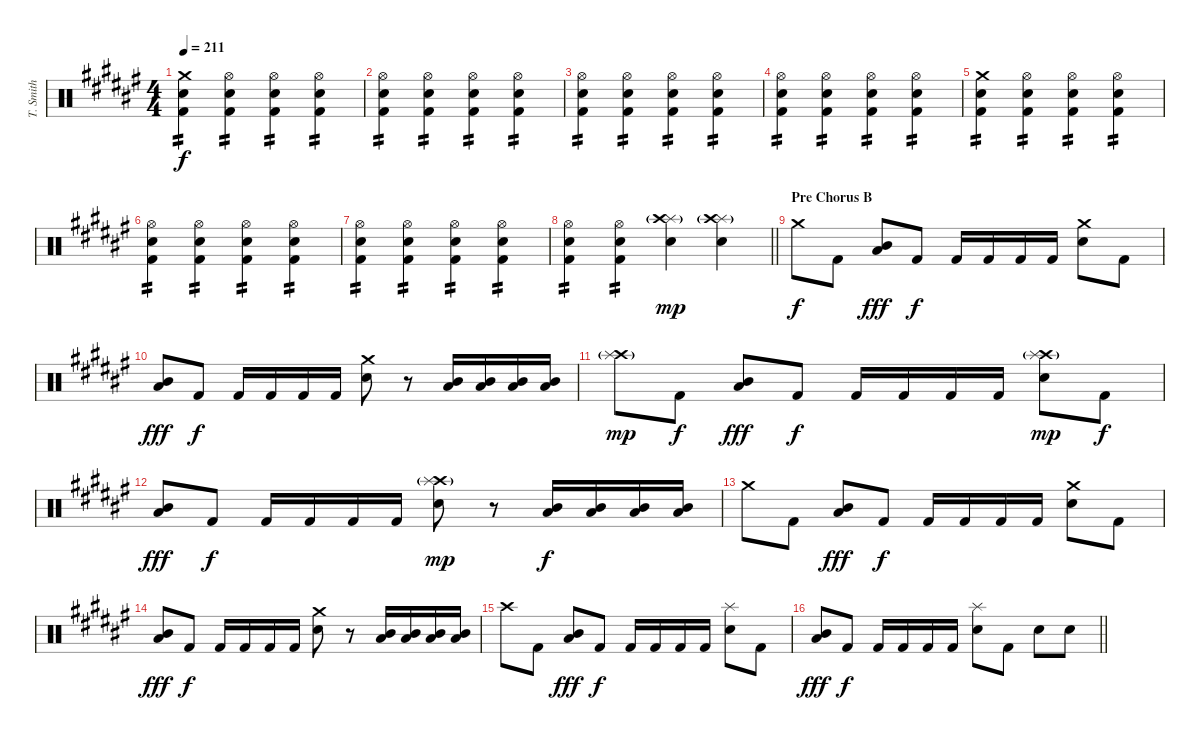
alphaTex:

\track ("T. Smith" "T. Smith") {instrument percussion}
\staff {score}
\articulation defaults
\ts (4 4)
\tempo 211
\clef neutral
\ks d#minor
("Crash medium (hit)" "Electric Snare (hit)" "Kick (hit) 2").4{tp 2 dy f} ("Hi-Hat (open)" "Electric Snare (hit)" "Kick (hit) 2").4{tp 2} ("Hi-Hat (open)" "Electric Snare (hit)" "Kick (hit) 2").4{tp 2} ("Hi-Hat (open)" "Electric Snare (hit)" "Kick (hit) 2").4{tp 2} |
("Hi-Hat (open)" "Electric Snare (hit)" "Kick (hit) 2").4{tp 2} ("Hi-Hat (open)" "Electric Snare (hit)" "Kick (hit) 2").4{tp 2} ("Hi-Hat (open)" "Electric Snare (hit)" "Kick (hit) 2").4{tp 2} ("Hi-Hat (open)" "Electric Snare (hit)" "Kick (hit) 2").4{tp 2} |
("Hi-Hat (open)" "Electric Snare (hit)" "Kick (hit) 2").4{tp 2} ("Hi-Hat (open)" "Electric Snare (hit)" "Kick (hit) 2").4{tp 2} ("Hi-Hat (open)" "Electric Snare (hit)" "Kick (hit) 2").4{tp 2} ("Hi-Hat (open)" "Electric Snare (hit)" "Kick (hit) 2").4{tp 2} |
("Hi-Hat (open)" "Electric Snare (hit)" "Kick (hit) 2").4{tp 2} ("Hi-Hat (open)" "Electric Snare (hit)" "Kick (hit) 2").4{tp 2} ("Hi-Hat (open)" "Electric Snare (hit)" "Kick (hit) 2").4{tp 2} ("Hi-Hat (open)" "Electric Snare (hit)" "Kick (hit) 2").4{tp 2} |
("Crash medium (hit)" "Electric Snare (hit)" "Kick (hit) 2").4{tp 2} ("Hi-Hat (open)" "Electric Snare (hit)" "Kick (hit) 2").4{tp 2} ("Hi-Hat (open)" "Electric Snare (hit)" "Kick (hit) 2").4{tp 2} ("Hi-Hat (open)" "Electric Snare (hit)" "Kick (hit) 2").4{tp 2} |
("Hi-Hat (open)" "Electric Snare (hit)" "Kick (hit) 2").4{tp 2} ("Hi-Hat (open)" "Electric Snare (hit)" "Kick (hit) 2").4{tp 2} ("Hi-Hat (open)" "Electric Snare (hit)" "Kick (hit) 2").4{tp 2} ("Hi-Hat (open)" "Electric Snare (hit)" "Kick (hit) 2").4{tp 2} |
("Hi-Hat (open)" "Electric Snare (hit)" "Kick (hit) 2").4{tp 2} ("Hi-Hat (open)" "Electric Snare (hit)" "Kick (hit) 2").4{tp 2} ("Hi-Hat (open)" "Electric Snare (hit)" "Kick (hit) 2").4{tp 2} ("Hi-Hat (open)" "Electric Snare (hit)" "Kick (hit) 2").4{tp 2} |
\barLineRight lightlight
("Hi-Hat (open)" "Electric Snare (hit)" "Kick (hit) 2").4{tp 2} ("Hi-Hat (open)" "Electric Snare (hit)" "Kick (hit) 2").4{tp 2} ("Splash (hit)" "Crash high (hit)"{g} "Electric Snare (hit)").4{dy mp} ("Splash (hit)" "Crash high (hit)"{g} "Electric Snare (hit)").4 |
\section ("" "Pre Chorus B")
"Crash medium (hit)".8{dy f} "Kick (hit) 2".8 ("Mid Tom (hit)" "Low Tom (hit)").8{dy fff} "Kick (hit) 2".8{dy f} "Kick (hit) 2".16 "Kick (hit) 2".16 "Kick (hit) 2".16 "Kick (hit) 2".16 ("Crash medium (hit)" "Electric Snare (hit)").8 "Kick (hit) 2".8 |
("Mid Tom (hit)" "Low Tom (hit)").8{dy fff} "Kick (hit) 2".8{dy f} "Kick (hit) 2".16 "Kick (hit) 2".16 "Kick (hit) 2".16 "Kick (hit) 2".16 ("Crash medium (hit)" "Electric Snare (hit)").8 r.8 ("Mid Tom (hit)" "Low Tom (hit)").16 ("Mid Tom (hit)" "Low Tom (hit)").16 ("Mid Tom (hit)" "Low Tom (hit)").16 ("Mid Tom (hit)" "Low Tom (hit)").16 |
("Crash high (hit)"{g} "Splash (hit)").8{dy mp} "Kick (hit) 2".8{dy f} ("Mid Tom (hit)" "Low Tom (hit)").8{dy fff} "Kick (hit) 2".8{dy f} "Kick (hit) 2".16 "Kick (hit) 2".16 "Kick (hit) 2".16 "Kick (hit) 2".16 ("Crash high (hit)"{g} "Splash (hit)" "Electric Snare (hit)").8{dy mp} "Kick (hit) 2".8{dy f} |
("Mid Tom (hit)" "Low Tom (hit)").8{dy fff} "Kick (hit) 2".8{dy f} "Kick (hit) 2".16 "Kick (hit) 2".16 "Kick (hit) 2".16 "Kick (hit) 2".16 ("Crash high (hit)"{g} "Splash (hit)" "Electric Snare (hit)").8{dy mp} r.8 ("Mid Tom (hit)" "Low Tom (hit)").16{dy f} ("Mid Tom (hit)" "Low Tom (hit)").16 ("Mid Tom (hit)" "Low Tom (hit)").16 ("Mid Tom (hit)" "Low Tom (hit)").16 |
"Crash medium (hit)".8 "Kick (hit) 2".8 ("Mid Tom (hit)" "Low Tom (hit)").8{dy fff} "Kick (hit) 2".8{dy f} "Kick (hit) 2".16 "Kick (hit) 2".16 "Kick (hit) 2".16 "Kick (hit) 2".16 ("Crash medium (hit)" "Electric Snare (hit)").8 "Kick (hit) 2".8 |
("Mid Tom (hit)" "Low Tom (hit)").8{dy fff} "Kick (hit) 2".8{dy f} "Kick (hit) 2".16 "Kick (hit) 2".16 "Kick (hit) 2".16 "Kick (hit) 2".16 ("Crash medium (hit)" "Electric Snare (hit)").8 r.8 ("Mid Tom (hit)" "Low Tom (hit)").16 ("Mid Tom (hit)" "Low Tom (hit)").16 ("Mid Tom (hit)" "Low Tom (hit)").16 ("Mid Tom (hit)" "Low Tom (hit)").16 |
"Crash high (hit)".8 "Kick (hit) 2".8 ("Mid Tom (hit)" "Low Tom (hit)").8{dy fff} "Kick (hit) 2".8{dy f} "Kick (hit) 2".16 "Kick (hit) 2".16 "Kick (hit) 2".16 "Kick (hit) 2".16 ("Splash (hit)" "Electric Snare (hit)").8 "Kick (hit) 2".8 |
\barLineRight lightlight
("Mid Tom (hit)" "Low Tom (hit)").8{dy fff} "Kick (hit) 2".8{dy f} "Kick (hit) 2".16 "Kick (hit) 2".16 "Kick (hit) 2".16 "Kick (hit) 2".16 ("Splash (hit)" "Electric Snare (hit)").8 "Kick (hit) 2".8 "Electric Snare (hit)".8 "Electric Snare (hit)".8
